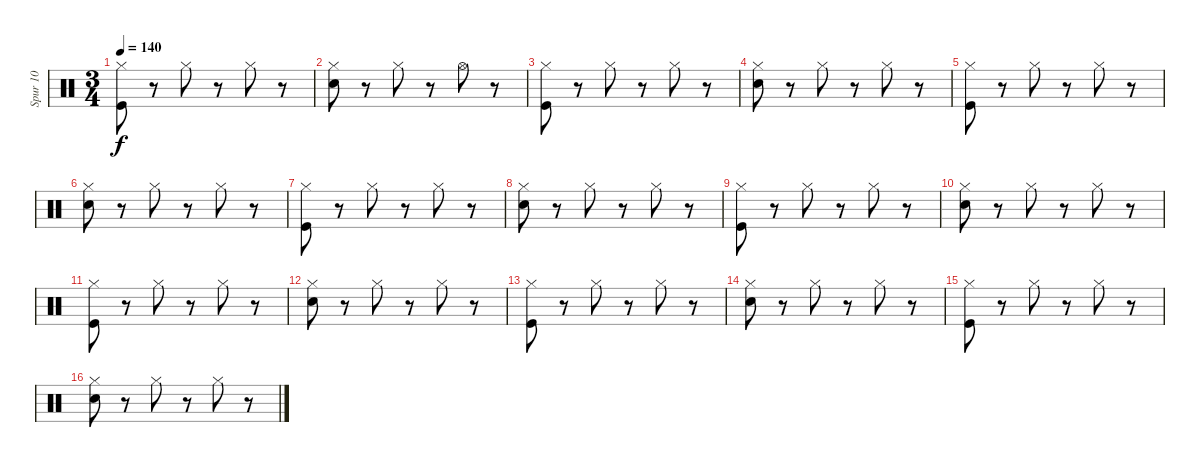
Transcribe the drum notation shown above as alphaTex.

\track ("Spur 10" "Spur 10") {instrument percussion}
\staff {score}
\articulation defaults
\ts (3 4)
\tempo 140
\clef neutral
\ks c
("Kick (hit)" "Hi-Hat (closed)").8{dy f} r.8 "Hi-Hat (closed)".8 r.8 "Hi-Hat (closed)".8 r.8 |
("Snare (hit) 2" "Hi-Hat (closed)").8 r.8 "Hi-Hat (closed)".8 r.8 "Hi-Hat (open)".8 r.8 |
("Kick (hit)" "Hi-Hat (closed)").8 r.8 "Hi-Hat (closed)".8 r.8 "Hi-Hat (closed)".8 r.8 |
("Snare (hit) 2" "Hi-Hat (closed)").8 r.8 "Hi-Hat (closed)".8 r.8 "Hi-Hat (closed)".8 r.8 |
("Kick (hit)" "Hi-Hat (closed)").8 r.8 "Hi-Hat (closed)".8 r.8 "Hi-Hat (closed)".8 r.8 |
("Snare (hit) 2" "Hi-Hat (closed)").8 r.8 "Hi-Hat (closed)".8 r.8 "Hi-Hat (closed)".8 r.8 |
("Kick (hit)" "Hi-Hat (closed)").8 r.8 "Hi-Hat (closed)".8 r.8 "Hi-Hat (closed)".8 r.8 |
("Snare (hit) 2" "Hi-Hat (closed)").8 r.8 "Hi-Hat (closed)".8 r.8 "Hi-Hat (closed)".8 r.8 |
("Kick (hit)" "Hi-Hat (closed)").8 r.8 "Hi-Hat (closed)".8 r.8 "Hi-Hat (closed)".8 r.8 |
("Snare (hit) 2" "Hi-Hat (closed)").8 r.8 "Hi-Hat (closed)".8 r.8 "Hi-Hat (closed)".8 r.8 |
("Kick (hit)" "Hi-Hat (closed)").8 r.8 "Hi-Hat (closed)".8 r.8 "Hi-Hat (closed)".8 r.8 |
("Snare (hit) 2" "Hi-Hat (closed)").8 r.8 "Hi-Hat (closed)".8 r.8 "Hi-Hat (closed)".8 r.8 |
("Kick (hit)" "Hi-Hat (closed)").8 r.8 "Hi-Hat (closed)".8 r.8 "Hi-Hat (closed)".8 r.8 |
("Snare (hit) 2" "Hi-Hat (closed)").8 r.8 "Hi-Hat (closed)".8 r.8 "Hi-Hat (closed)".8 r.8 |
("Kick (hit)" "Hi-Hat (closed)").8 r.8 "Hi-Hat (closed)".8 r.8 "Hi-Hat (closed)".8 r.8 |
("Snare (hit) 2" "Hi-Hat (closed)").8 r.8 "Hi-Hat (closed)".8 r.8 "Hi-Hat (closed)".8 r.8
